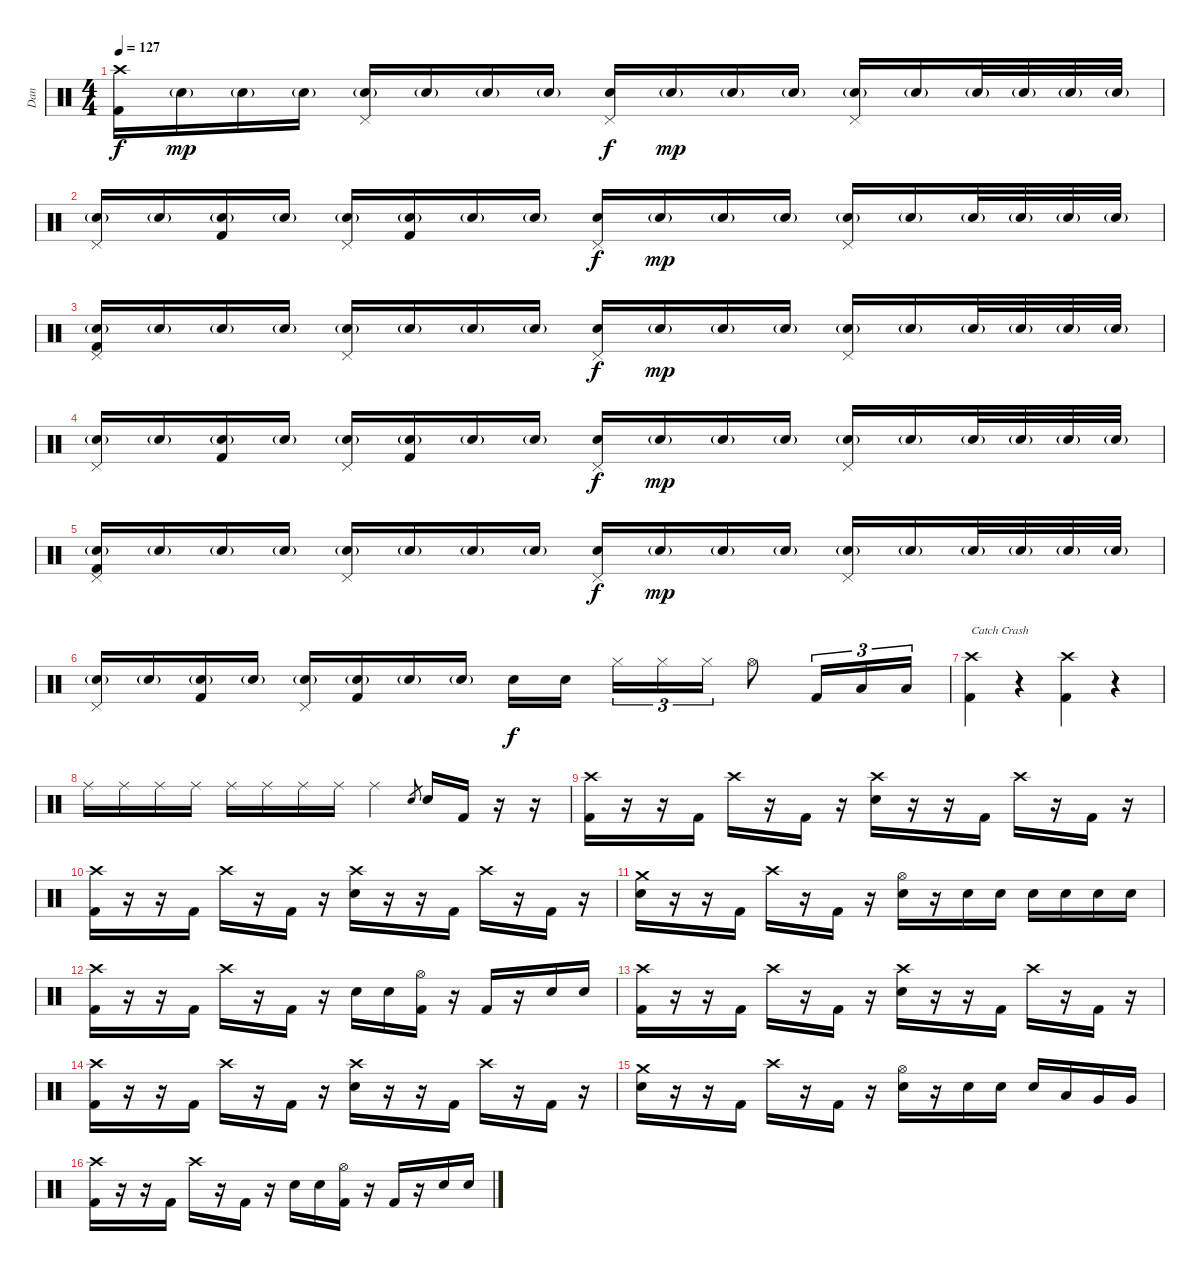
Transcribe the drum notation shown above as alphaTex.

\track ("Dan" "Dan") {instrument percussion}
\staff {score}
\articulation defaults
\ts (4 4)
\tempo 127
\clef neutral
\ks c
("Crash high (hit)" "Kick (hit) 2").16{dy f} "Electric Snare (hit)"{g}.16{dy mp} "Electric Snare (hit)"{g}.16 "Electric Snare (hit)"{g}.16 ("Pedal Hi-Hat (hit)" "Electric Snare (hit)"{g}).16 "Electric Snare (hit)"{g}.16 "Electric Snare (hit)"{g}.16 "Electric Snare (hit)"{g}.16 ("Pedal Hi-Hat (hit)" "Electric Snare (hit)").16{dy f} "Electric Snare (hit)"{g}.16{dy mp} "Electric Snare (hit)"{g}.16 "Electric Snare (hit)"{g}.16 ("Pedal Hi-Hat (hit)" "Electric Snare (hit)"{g}).16 "Electric Snare (hit)"{g}.16 "Electric Snare (hit)"{g}.32 "Electric Snare (hit)"{g}.32 "Electric Snare (hit)"{g}.32 "Electric Snare (hit)"{g}.32 |
("Pedal Hi-Hat (hit)" "Electric Snare (hit)"{g}).16 "Electric Snare (hit)"{g}.16 ("Electric Snare (hit)"{g} "Kick (hit) 2").16 "Electric Snare (hit)"{g}.16 ("Pedal Hi-Hat (hit)" "Electric Snare (hit)"{g}).16 ("Electric Snare (hit)"{g} "Kick (hit) 2").16 "Electric Snare (hit)"{g}.16 "Electric Snare (hit)"{g}.16 ("Pedal Hi-Hat (hit)" "Electric Snare (hit)").16{dy f} "Electric Snare (hit)"{g}.16{dy mp} "Electric Snare (hit)"{g}.16 "Electric Snare (hit)"{g}.16 ("Pedal Hi-Hat (hit)" "Electric Snare (hit)"{g}).16 "Electric Snare (hit)"{g}.16 "Electric Snare (hit)"{g}.32 "Electric Snare (hit)"{g}.32 "Electric Snare (hit)"{g}.32 "Electric Snare (hit)"{g}.32 |
("Pedal Hi-Hat (hit)" "Electric Snare (hit)"{g} "Kick (hit) 2").16 "Electric Snare (hit)"{g}.16 "Electric Snare (hit)"{g}.16 "Electric Snare (hit)"{g}.16 ("Pedal Hi-Hat (hit)" "Electric Snare (hit)"{g}).16 "Electric Snare (hit)"{g}.16 "Electric Snare (hit)"{g}.16 "Electric Snare (hit)"{g}.16 ("Pedal Hi-Hat (hit)" "Electric Snare (hit)").16{dy f} "Electric Snare (hit)"{g}.16{dy mp} "Electric Snare (hit)"{g}.16 "Electric Snare (hit)"{g}.16 ("Pedal Hi-Hat (hit)" "Electric Snare (hit)"{g}).16 "Electric Snare (hit)"{g}.16 "Electric Snare (hit)"{g}.32 "Electric Snare (hit)"{g}.32 "Electric Snare (hit)"{g}.32 "Electric Snare (hit)"{g}.32 |
("Pedal Hi-Hat (hit)" "Electric Snare (hit)"{g}).16 "Electric Snare (hit)"{g}.16 ("Electric Snare (hit)"{g} "Kick (hit) 2").16 "Electric Snare (hit)"{g}.16 ("Pedal Hi-Hat (hit)" "Electric Snare (hit)"{g}).16 ("Electric Snare (hit)"{g} "Kick (hit) 2").16 "Electric Snare (hit)"{g}.16 "Electric Snare (hit)"{g}.16 ("Pedal Hi-Hat (hit)" "Electric Snare (hit)").16{dy f} "Electric Snare (hit)"{g}.16{dy mp} "Electric Snare (hit)"{g}.16 "Electric Snare (hit)"{g}.16 ("Pedal Hi-Hat (hit)" "Electric Snare (hit)"{g}).16 "Electric Snare (hit)"{g}.16 "Electric Snare (hit)"{g}.32 "Electric Snare (hit)"{g}.32 "Electric Snare (hit)"{g}.32 "Electric Snare (hit)"{g}.32 |
("Pedal Hi-Hat (hit)" "Electric Snare (hit)"{g} "Kick (hit) 2").16 "Electric Snare (hit)"{g}.16 "Electric Snare (hit)"{g}.16 "Electric Snare (hit)"{g}.16 ("Pedal Hi-Hat (hit)" "Electric Snare (hit)"{g}).16 "Electric Snare (hit)"{g}.16 "Electric Snare (hit)"{g}.16 "Electric Snare (hit)"{g}.16 ("Pedal Hi-Hat (hit)" "Electric Snare (hit)").16{dy f} "Electric Snare (hit)"{g}.16{dy mp} "Electric Snare (hit)"{g}.16 "Electric Snare (hit)"{g}.16 ("Pedal Hi-Hat (hit)" "Electric Snare (hit)"{g}).16 "Electric Snare (hit)"{g}.16 "Electric Snare (hit)"{g}.32 "Electric Snare (hit)"{g}.32 "Electric Snare (hit)"{g}.32 "Electric Snare (hit)"{g}.32 |
("Pedal Hi-Hat (hit)" "Electric Snare (hit)"{g}).16 "Electric Snare (hit)"{g}.16 ("Electric Snare (hit)"{g} "Kick (hit) 2").16 "Electric Snare (hit)"{g}.16 ("Pedal Hi-Hat (hit)" "Electric Snare (hit)"{g}).16 ("Electric Snare (hit)"{g} "Kick (hit) 2").16 "Electric Snare (hit)"{g}.16 "Electric Snare (hit)"{g}.16 "Electric Snare (hit)".16{dy f} "Electric Snare (hit)".16{beam splitsecondary} "Hi-Hat (closed)".16{tu (3 2)} "Hi-Hat (closed)".16{tu (3 2)} "Hi-Hat (closed)".16{tu (3 2)} "Hi-Hat (open)".8 "Kick (hit) 2".16{tu (3 2)} "Low Tom (hit)".16{tu (3 2)} "Low Tom (hit)".16{tu (3 2)} |
("Crash high (hit)" "Kick (hit) 2").4{txt "Catch Crash"} r.4 ("Crash high (hit)" "Kick (hit) 2").4 r.4 |
"Ride (middle)".16 "Ride (middle)".16 "Ride (middle)".16 "Ride (middle)".16 "Ride (middle)".16 "Ride (middle)".16 "Ride (middle)".16 "Ride (middle)".16 "Ride (middle)".4 "Electric Snare (hit)".8{gr} "Electric Snare (hit)".16 "Kick (hit) 2".16 r.16 r.16 |
("Crash high (hit)" "Kick (hit) 2").16 r.16 r.16 "Kick (hit) 2".16 "Crash high (hit)".16 r.16 "Kick (hit) 2".16 r.16 ("Crash high (hit)" "Electric Snare (hit)").16 r.16 r.16 "Kick (hit) 2".16 "Crash high (hit)".16 r.16 "Kick (hit) 2".16 r.16 |
("Crash high (hit)" "Kick (hit) 2").16 r.16 r.16 "Kick (hit) 2".16 "Crash high (hit)".16 r.16 "Kick (hit) 2".16 r.16 ("Crash high (hit)" "Electric Snare (hit)").16 r.16 r.16 "Kick (hit) 2".16 "Crash high (hit)".16 r.16 "Kick (hit) 2".16 r.16 |
("Crash medium (hit)" "Electric Snare (hit)").16 r.16 r.16 "Kick (hit) 2".16 "Crash high (hit)".16 r.16 "Kick (hit) 2".16 r.16 ("Hi-Hat (open)" "Electric Snare (hit)").16 r.16 "Electric Snare (hit)".16 "Electric Snare (hit)".16 "Electric Snare (hit)".16 "Electric Snare (hit)".16 "Electric Snare (hit)".16 "Electric Snare (hit)".16 |
("Crash high (hit)" "Kick (hit) 2").16 r.16 r.16 "Kick (hit) 2".16 "Crash high (hit)".16 r.16 "Kick (hit) 2".16 r.16 "Electric Snare (hit)".16 "Electric Snare (hit)".16 ("Hi-Hat (open)" "Kick (hit) 2").16 r.16 "Kick (hit) 2".16 r.16 "Electric Snare (hit)".16 "Electric Snare (hit)".16 |
("Crash high (hit)" "Kick (hit) 2").16 r.16 r.16 "Kick (hit) 2".16 "Crash high (hit)".16 r.16 "Kick (hit) 2".16 r.16 ("Crash high (hit)" "Electric Snare (hit)").16 r.16 r.16 "Kick (hit) 2".16 "Crash high (hit)".16 r.16 "Kick (hit) 2".16 r.16 |
("Crash high (hit)" "Kick (hit) 2").16 r.16 r.16 "Kick (hit) 2".16 "Crash high (hit)".16 r.16 "Kick (hit) 2".16 r.16 ("Crash high (hit)" "Electric Snare (hit)").16 r.16 r.16 "Kick (hit) 2".16 "Crash high (hit)".16 r.16 "Kick (hit) 2".16 r.16 |
("Crash medium (hit)" "Electric Snare (hit)").16 r.16 r.16 "Kick (hit) 2".16 "Crash high (hit)".16 r.16 "Kick (hit) 2".16 r.16 ("Hi-Hat (open)" "Electric Snare (hit)").16 r.16 "Electric Snare (hit)".16 "Electric Snare (hit)".16 "Electric Snare (hit)".16 "Low Tom (hit)".16 "Very Low Tom (hit)".16 "Very Low Tom (hit)".16 |
("Crash high (hit)" "Kick (hit) 2").16 r.16 r.16 "Kick (hit) 2".16 "Crash high (hit)".16 r.16 "Kick (hit) 2".16 r.16 "Electric Snare (hit)".16 "Electric Snare (hit)".16 ("Hi-Hat (open)" "Kick (hit) 2").16 r.16 "Kick (hit) 2".16 r.16 "Electric Snare (hit)".16 "Electric Snare (hit)".16
